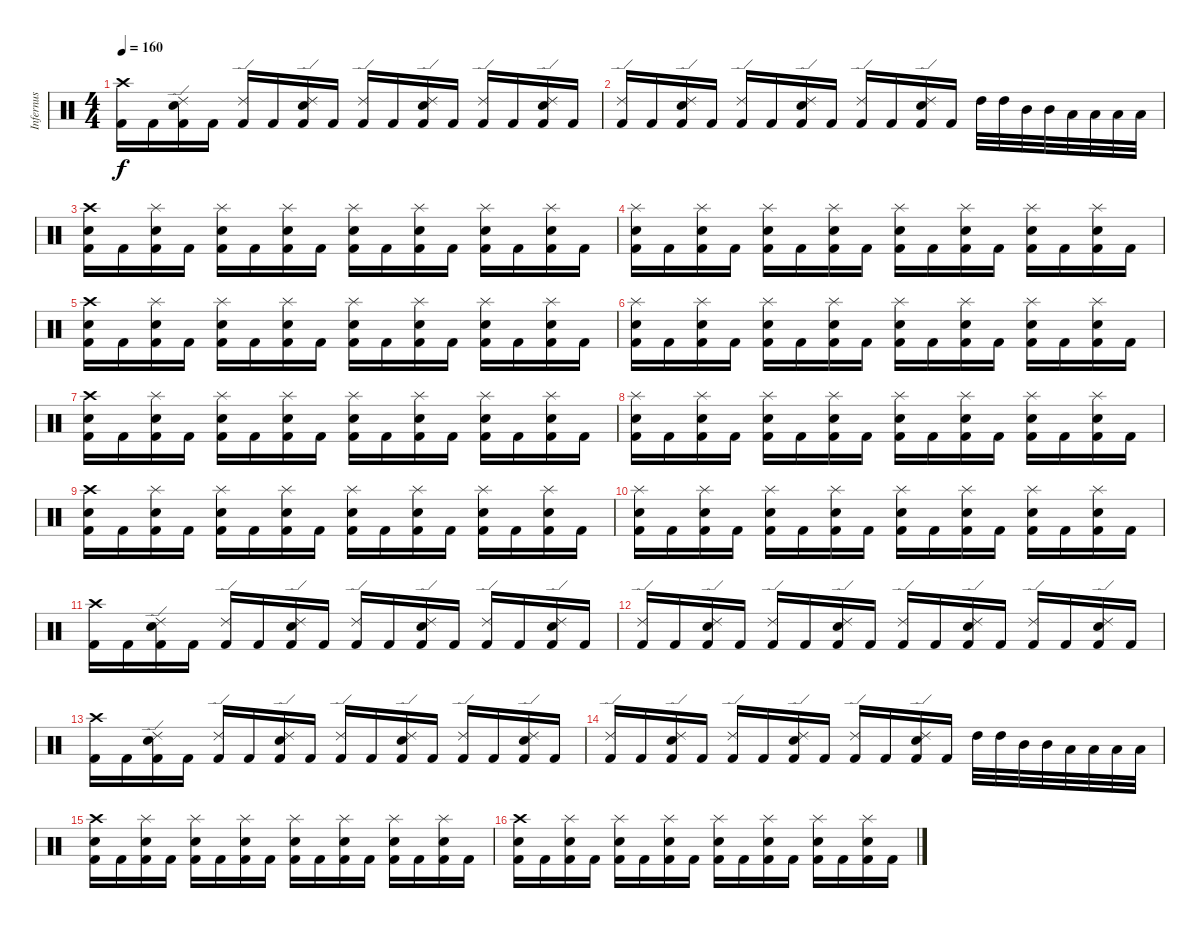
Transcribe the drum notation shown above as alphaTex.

\track ("Infernus" "Infernus") {instrument percussion}
\staff {score}
\articulation defaults
\ts (4 4)
\tempo 160
\clef neutral
\ks c
("Crash high (hit)" "Kick (hit) 2").16{dy f} "Kick (hit) 2".16 ("Ride (edge) 2" "Electric Snare (hit)" "Kick (hit) 2").16 "Kick (hit) 2".16 ("Ride (edge) 2" "Kick (hit) 2").16 "Kick (hit) 2".16 ("Ride (edge) 2" "Electric Snare (hit)" "Kick (hit) 2").16 "Kick (hit) 2".16 ("Ride (edge) 2" "Kick (hit) 2").16 "Kick (hit) 2".16 ("Ride (edge) 2" "Electric Snare (hit)" "Kick (hit) 2").16 "Kick (hit) 2".16 ("Ride (edge) 2" "Kick (hit) 2").16 "Kick (hit) 2".16 ("Ride (edge) 2" "Electric Snare (hit)" "Kick (hit) 2").16 "Kick (hit) 2".16 |
("Ride (edge) 2" "Kick (hit) 2").16 "Kick (hit) 2".16 ("Ride (edge) 2" "Electric Snare (hit)" "Kick (hit) 2").16 "Kick (hit) 2".16 ("Ride (edge) 2" "Kick (hit) 2").16 "Kick (hit) 2".16 ("Ride (edge) 2" "Electric Snare (hit)" "Kick (hit) 2").16 "Kick (hit) 2".16 ("Ride (edge) 2" "Kick (hit) 2").16 "Kick (hit) 2".16 ("Ride (edge) 2" "Electric Snare (hit)" "Kick (hit) 2").16 "Kick (hit) 2".16 "High Tom (hit)".32 "High Tom (hit)".32 "Mid Tom (hit)".32 "Mid Tom (hit)".32 "Low Tom (hit)".32 "Low Tom (hit)".32 "Low Tom (hit)".32 "Low Tom (hit)".32 |
("Crash high (hit)" "Electric Snare (hit)" "Kick (hit) 2").16 "Kick (hit) 2".16 ("Splash (hit)" "Electric Snare (hit)" "Kick (hit) 2").16 "Kick (hit) 2".16 ("Splash (hit)" "Electric Snare (hit)" "Kick (hit) 2").16 "Kick (hit) 2".16 ("Splash (hit)" "Electric Snare (hit)" "Kick (hit) 2").16 "Kick (hit) 2".16 ("Splash (hit)" "Electric Snare (hit)" "Kick (hit) 2").16 "Kick (hit) 2".16 ("Splash (hit)" "Electric Snare (hit)" "Kick (hit) 2").16 "Kick (hit) 2".16 ("Splash (hit)" "Electric Snare (hit)" "Kick (hit) 2").16 "Kick (hit) 2".16 ("Splash (hit)" "Electric Snare (hit)" "Kick (hit) 2").16 "Kick (hit) 2".16 |
("Splash (hit)" "Electric Snare (hit)" "Kick (hit) 2").16 "Kick (hit) 2".16 ("Splash (hit)" "Electric Snare (hit)" "Kick (hit) 2").16 "Kick (hit) 2".16 ("Splash (hit)" "Electric Snare (hit)" "Kick (hit) 2").16 "Kick (hit) 2".16 ("Splash (hit)" "Electric Snare (hit)" "Kick (hit) 2").16 "Kick (hit) 2".16 ("Splash (hit)" "Electric Snare (hit)" "Kick (hit) 2").16 "Kick (hit) 2".16 ("Splash (hit)" "Electric Snare (hit)" "Kick (hit) 2").16 "Kick (hit) 2".16 ("Splash (hit)" "Electric Snare (hit)" "Kick (hit) 2").16 "Kick (hit) 2".16 ("Splash (hit)" "Electric Snare (hit)" "Kick (hit) 2").16 "Kick (hit) 2".16 |
("Crash high (hit)" "Electric Snare (hit)" "Kick (hit) 2").16 "Kick (hit) 2".16 ("Splash (hit)" "Electric Snare (hit)" "Kick (hit) 2").16 "Kick (hit) 2".16 ("Splash (hit)" "Electric Snare (hit)" "Kick (hit) 2").16 "Kick (hit) 2".16 ("Splash (hit)" "Electric Snare (hit)" "Kick (hit) 2").16 "Kick (hit) 2".16 ("Splash (hit)" "Electric Snare (hit)" "Kick (hit) 2").16 "Kick (hit) 2".16 ("Splash (hit)" "Electric Snare (hit)" "Kick (hit) 2").16 "Kick (hit) 2".16 ("Splash (hit)" "Electric Snare (hit)" "Kick (hit) 2").16 "Kick (hit) 2".16 ("Splash (hit)" "Electric Snare (hit)" "Kick (hit) 2").16 "Kick (hit) 2".16 |
("Splash (hit)" "Electric Snare (hit)" "Kick (hit) 2").16 "Kick (hit) 2".16 ("Splash (hit)" "Electric Snare (hit)" "Kick (hit) 2").16 "Kick (hit) 2".16 ("Splash (hit)" "Electric Snare (hit)" "Kick (hit) 2").16 "Kick (hit) 2".16 ("Splash (hit)" "Electric Snare (hit)" "Kick (hit) 2").16 "Kick (hit) 2".16 ("Splash (hit)" "Electric Snare (hit)" "Kick (hit) 2").16 "Kick (hit) 2".16 ("Splash (hit)" "Electric Snare (hit)" "Kick (hit) 2").16 "Kick (hit) 2".16 ("Splash (hit)" "Electric Snare (hit)" "Kick (hit) 2").16 "Kick (hit) 2".16 ("Splash (hit)" "Electric Snare (hit)" "Kick (hit) 2").16 "Kick (hit) 2".16 |
("Crash high (hit)" "Electric Snare (hit)" "Kick (hit) 2").16 "Kick (hit) 2".16 ("Splash (hit)" "Electric Snare (hit)" "Kick (hit) 2").16 "Kick (hit) 2".16 ("Splash (hit)" "Electric Snare (hit)" "Kick (hit) 2").16 "Kick (hit) 2".16 ("Splash (hit)" "Electric Snare (hit)" "Kick (hit) 2").16 "Kick (hit) 2".16 ("Splash (hit)" "Electric Snare (hit)" "Kick (hit) 2").16 "Kick (hit) 2".16 ("Splash (hit)" "Electric Snare (hit)" "Kick (hit) 2").16 "Kick (hit) 2".16 ("Splash (hit)" "Electric Snare (hit)" "Kick (hit) 2").16 "Kick (hit) 2".16 ("Splash (hit)" "Electric Snare (hit)" "Kick (hit) 2").16 "Kick (hit) 2".16 |
("Splash (hit)" "Electric Snare (hit)" "Kick (hit) 2").16 "Kick (hit) 2".16 ("Splash (hit)" "Electric Snare (hit)" "Kick (hit) 2").16 "Kick (hit) 2".16 ("Splash (hit)" "Electric Snare (hit)" "Kick (hit) 2").16 "Kick (hit) 2".16 ("Splash (hit)" "Electric Snare (hit)" "Kick (hit) 2").16 "Kick (hit) 2".16 ("Splash (hit)" "Electric Snare (hit)" "Kick (hit) 2").16 "Kick (hit) 2".16 ("Splash (hit)" "Electric Snare (hit)" "Kick (hit) 2").16 "Kick (hit) 2".16 ("Splash (hit)" "Electric Snare (hit)" "Kick (hit) 2").16 "Kick (hit) 2".16 ("Splash (hit)" "Electric Snare (hit)" "Kick (hit) 2").16 "Kick (hit) 2".16 |
("Crash high (hit)" "Electric Snare (hit)" "Kick (hit) 2").16 "Kick (hit) 2".16 ("Splash (hit)" "Electric Snare (hit)" "Kick (hit) 2").16 "Kick (hit) 2".16 ("Splash (hit)" "Electric Snare (hit)" "Kick (hit) 2").16 "Kick (hit) 2".16 ("Splash (hit)" "Electric Snare (hit)" "Kick (hit) 2").16 "Kick (hit) 2".16 ("Splash (hit)" "Electric Snare (hit)" "Kick (hit) 2").16 "Kick (hit) 2".16 ("Splash (hit)" "Electric Snare (hit)" "Kick (hit) 2").16 "Kick (hit) 2".16 ("Splash (hit)" "Electric Snare (hit)" "Kick (hit) 2").16 "Kick (hit) 2".16 ("Splash (hit)" "Electric Snare (hit)" "Kick (hit) 2").16 "Kick (hit) 2".16 |
("Splash (hit)" "Electric Snare (hit)" "Kick (hit) 2").16 "Kick (hit) 2".16 ("Splash (hit)" "Electric Snare (hit)" "Kick (hit) 2").16 "Kick (hit) 2".16 ("Splash (hit)" "Electric Snare (hit)" "Kick (hit) 2").16 "Kick (hit) 2".16 ("Splash (hit)" "Electric Snare (hit)" "Kick (hit) 2").16 "Kick (hit) 2".16 ("Splash (hit)" "Electric Snare (hit)" "Kick (hit) 2").16 "Kick (hit) 2".16 ("Splash (hit)" "Electric Snare (hit)" "Kick (hit) 2").16 "Kick (hit) 2".16 ("Splash (hit)" "Electric Snare (hit)" "Kick (hit) 2").16 "Kick (hit) 2".16 ("Splash (hit)" "Electric Snare (hit)" "Kick (hit) 2").16 "Kick (hit) 2".16 |
("Crash high (hit)" "Kick (hit) 2").16 "Kick (hit) 2".16 ("Ride (edge) 2" "Electric Snare (hit)" "Kick (hit) 2").16 "Kick (hit) 2".16 ("Ride (edge) 2" "Kick (hit) 2").16 "Kick (hit) 2".16 ("Ride (edge) 2" "Electric Snare (hit)" "Kick (hit) 2").16 "Kick (hit) 2".16 ("Ride (edge) 2" "Kick (hit) 2").16 "Kick (hit) 2".16 ("Ride (edge) 2" "Electric Snare (hit)" "Kick (hit) 2").16 "Kick (hit) 2".16 ("Ride (edge) 2" "Kick (hit) 2").16 "Kick (hit) 2".16 ("Ride (edge) 2" "Electric Snare (hit)" "Kick (hit) 2").16 "Kick (hit) 2".16 |
("Ride (edge) 2" "Kick (hit) 2").16 "Kick (hit) 2".16 ("Ride (edge) 2" "Electric Snare (hit)" "Kick (hit) 2").16 "Kick (hit) 2".16 ("Ride (edge) 2" "Kick (hit) 2").16 "Kick (hit) 2".16 ("Ride (edge) 2" "Electric Snare (hit)" "Kick (hit) 2").16 "Kick (hit) 2".16 ("Ride (edge) 2" "Kick (hit) 2").16 "Kick (hit) 2".16 ("Ride (edge) 2" "Electric Snare (hit)" "Kick (hit) 2").16 "Kick (hit) 2".16 ("Ride (edge) 2" "Kick (hit) 2").16 "Kick (hit) 2".16 ("Ride (edge) 2" "Electric Snare (hit)" "Kick (hit) 2").16 "Kick (hit) 2".16 |
("Crash high (hit)" "Kick (hit) 2").16 "Kick (hit) 2".16 ("Ride (edge) 2" "Electric Snare (hit)" "Kick (hit) 2").16 "Kick (hit) 2".16 ("Ride (edge) 2" "Kick (hit) 2").16 "Kick (hit) 2".16 ("Ride (edge) 2" "Electric Snare (hit)" "Kick (hit) 2").16 "Kick (hit) 2".16 ("Ride (edge) 2" "Kick (hit) 2").16 "Kick (hit) 2".16 ("Ride (edge) 2" "Electric Snare (hit)" "Kick (hit) 2").16 "Kick (hit) 2".16 ("Ride (edge) 2" "Kick (hit) 2").16 "Kick (hit) 2".16 ("Ride (edge) 2" "Electric Snare (hit)" "Kick (hit) 2").16 "Kick (hit) 2".16 |
("Ride (edge) 2" "Kick (hit) 2").16 "Kick (hit) 2".16 ("Ride (edge) 2" "Electric Snare (hit)" "Kick (hit) 2").16 "Kick (hit) 2".16 ("Ride (edge) 2" "Kick (hit) 2").16 "Kick (hit) 2".16 ("Ride (edge) 2" "Electric Snare (hit)" "Kick (hit) 2").16 "Kick (hit) 2".16 ("Ride (edge) 2" "Kick (hit) 2").16 "Kick (hit) 2".16 ("Ride (edge) 2" "Electric Snare (hit)" "Kick (hit) 2").16 "Kick (hit) 2".16 "High Tom (hit)".32 "High Tom (hit)".32 "Mid Tom (hit)".32 "Mid Tom (hit)".32 "Low Tom (hit)".32 "Low Tom (hit)".32 "Low Tom (hit)".32 "Low Tom (hit)".32 |
("Crash high (hit)" "Electric Snare (hit)" "Kick (hit) 2").16 "Kick (hit) 2".16 ("Splash (hit)" "Electric Snare (hit)" "Kick (hit) 2").16 "Kick (hit) 2".16 ("Splash (hit)" "Electric Snare (hit)" "Kick (hit) 2").16 "Kick (hit) 2".16 ("Splash (hit)" "Electric Snare (hit)" "Kick (hit) 2").16 "Kick (hit) 2".16 ("Splash (hit)" "Electric Snare (hit)" "Kick (hit) 2").16 "Kick (hit) 2".16 ("Splash (hit)" "Electric Snare (hit)" "Kick (hit) 2").16 "Kick (hit) 2".16 ("Splash (hit)" "Electric Snare (hit)" "Kick (hit) 2").16 "Kick (hit) 2".16 ("Splash (hit)" "Electric Snare (hit)" "Kick (hit) 2").16 "Kick (hit) 2".16 |
("Crash high (hit)" "Electric Snare (hit)" "Kick (hit) 2").16 "Kick (hit) 2".16 ("Splash (hit)" "Electric Snare (hit)" "Kick (hit) 2").16 "Kick (hit) 2".16 ("Splash (hit)" "Electric Snare (hit)" "Kick (hit) 2").16 "Kick (hit) 2".16 ("Splash (hit)" "Electric Snare (hit)" "Kick (hit) 2").16 "Kick (hit) 2".16 ("Splash (hit)" "Electric Snare (hit)" "Kick (hit) 2").16 "Kick (hit) 2".16 ("Splash (hit)" "Electric Snare (hit)" "Kick (hit) 2").16 "Kick (hit) 2".16 ("Splash (hit)" "Electric Snare (hit)" "Kick (hit) 2").16 "Kick (hit) 2".16 ("Splash (hit)" "Electric Snare (hit)" "Kick (hit) 2").16 "Kick (hit) 2".16
